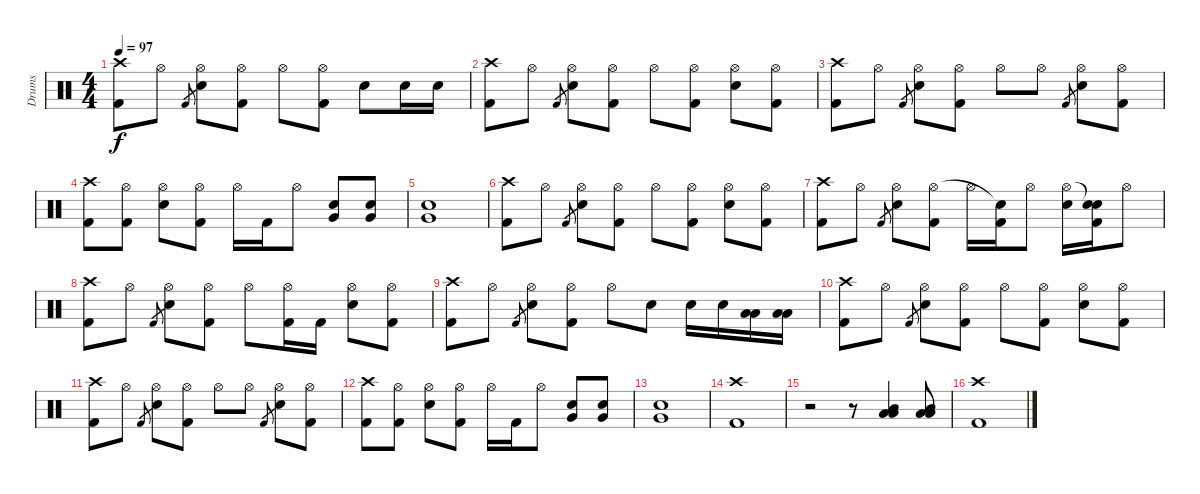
\track ("Drums" "Drums") {instrument percussion}
\staff {score}
\articulation defaults
\ts (4 4)
\tempo 97
\clef neutral
\ks c
("Kick (hit) 2" "Crash high (hit)").8{dy f} "Hi-Hat (open)".8 "Kick (hit) 2".8{gr} ("Electric Snare (hit)" "Hi-Hat (open)").8 ("Kick (hit) 2" "Hi-Hat (open)").8 "Hi-Hat (open)".8 ("Kick (hit) 2" "Hi-Hat (open)").8 "Electric Snare (hit)".8 "Electric Snare (hit)".16 "Electric Snare (hit)".16 |
("Kick (hit) 2" "Crash high (hit)").8{volume 10} "Hi-Hat (open)".8 "Kick (hit) 2".8{gr} ("Electric Snare (hit)" "Hi-Hat (open)").8 ("Kick (hit) 2" "Hi-Hat (open)").8 "Hi-Hat (open)".8 ("Kick (hit) 2" "Hi-Hat (open)").8 ("Electric Snare (hit)" "Hi-Hat (open)").8 ("Kick (hit) 2" "Hi-Hat (open)").8 |
("Kick (hit) 2" "Crash high (hit)").8 "Hi-Hat (open)".8 "Kick (hit) 2".8{gr} ("Electric Snare (hit)" "Hi-Hat (open)").8 ("Kick (hit) 2" "Hi-Hat (open)").8 "Hi-Hat (open)".8 "Hi-Hat (open)".8 "Kick (hit) 2".8{gr} ("Electric Snare (hit)" "Hi-Hat (open)").8 ("Kick (hit) 2" "Hi-Hat (open)").8 |
("Kick (hit) 2" "Crash high (hit)").8 ("Kick (hit) 2" "Hi-Hat (open)").8 ("Electric Snare (hit)" "Hi-Hat (open)").8 ("Kick (hit) 2" "Hi-Hat (open)").8 "Hi-Hat (open)".16 "Kick (hit) 2".16 "Hi-Hat (open)".8 ("Electric Snare (hit)" "Very Low Tom (hit)").8 ("Electric Snare (hit)" "Very Low Tom (hit)").8 |
("Electric Snare (hit)" "Very Low Tom (hit)").1 |
("Kick (hit) 2" "Crash high (hit)").8{volume 10} "Hi-Hat (open)".8 "Kick (hit) 2".8{gr} ("Electric Snare (hit)" "Hi-Hat (open)").8 ("Kick (hit) 2" "Hi-Hat (open)").8 "Hi-Hat (open)".8 ("Kick (hit) 2" "Hi-Hat (open)").8 ("Electric Snare (hit)" "Hi-Hat (open)").8 ("Kick (hit) 2" "Hi-Hat (open)").8 |
("Kick (hit) 2" "Crash high (hit)").8 "Hi-Hat (open)".8 "Kick (hit) 2".8{gr} ("Electric Snare (hit)" "Hi-Hat (open)").8 ("Kick (hit) 2" "Hi-Hat (open)").8 "Hi-Hat (open)".16 ("Kick (hit) 2" "Snare (hit)"{t}).16 "Hi-Hat (open)".8 ("Electric Snare (hit)" "Hi-Hat (open)").16 ("Kick (hit) 2" "Snare (hit)"{t} "Snare (hit)").16 "Hi-Hat (open)".8 |
("Kick (hit) 2" "Crash high (hit)").8 "Hi-Hat (open)".8 "Kick (hit) 2".8{gr} ("Electric Snare (hit)" "Hi-Hat (open)").8 ("Kick (hit) 2" "Hi-Hat (open)").8 "Hi-Hat (open)".8 ("Kick (hit) 2" "Hi-Hat (open)").16 "Kick (hit) 2".16 ("Electric Snare (hit)" "Hi-Hat (open)").8 ("Kick (hit) 2" "Hi-Hat (open)").8 |
("Kick (hit) 2" "Crash high (hit)").8 "Hi-Hat (open)".8 "Kick (hit) 2".8{gr} ("Electric Snare (hit)" "Hi-Hat (open)").8 ("Kick (hit) 2" "Hi-Hat (open)").8 "Hi-Hat (open)".8 "Electric Snare (hit)".8 "Electric Snare (hit)".16 "Electric Snare (hit)".16 ("Low Tom (hit)" "Low Tom (hit)").16 ("Low Tom (hit)" "Low Tom (hit)").16 |
("Kick (hit) 2" "Crash high (hit)").8{volume 10} "Hi-Hat (open)".8 "Kick (hit) 2".8{gr} ("Electric Snare (hit)" "Hi-Hat (open)").8 ("Kick (hit) 2" "Hi-Hat (open)").8 "Hi-Hat (open)".8 ("Kick (hit) 2" "Hi-Hat (open)").8 ("Electric Snare (hit)" "Hi-Hat (open)").8 ("Kick (hit) 2" "Hi-Hat (open)").8 |
("Kick (hit) 2" "Crash high (hit)").8 "Hi-Hat (open)".8 "Kick (hit) 2".8{gr} ("Electric Snare (hit)" "Hi-Hat (open)").8 ("Kick (hit) 2" "Hi-Hat (open)").8 "Hi-Hat (open)".8 "Hi-Hat (open)".8 "Kick (hit) 2".8{gr} ("Electric Snare (hit)" "Hi-Hat (open)").8 ("Kick (hit) 2" "Hi-Hat (open)").8 |
("Kick (hit) 2" "Crash high (hit)").8 ("Kick (hit) 2" "Hi-Hat (open)").8 ("Electric Snare (hit)" "Hi-Hat (open)").8 ("Kick (hit) 2" "Hi-Hat (open)").8 "Hi-Hat (open)".16 "Kick (hit) 2".16 "Hi-Hat (open)".8 ("Electric Snare (hit)" "Very Low Tom (hit)").8 ("Electric Snare (hit)" "Very Low Tom (hit)").8 |
("Electric Snare (hit)" "Very Low Tom (hit)").1 |
("Kick (hit) 2" "Crash high (hit)").1 |
r.2 r.8 ("Mid Tom (hit)" "Low Tom (hit)" "Low Tom (hit)").4 ("Mid Tom (hit)" "Low Tom (hit)" "Low Tom (hit)").8 |
("Kick (hit) 2" "Crash high (hit)").1
